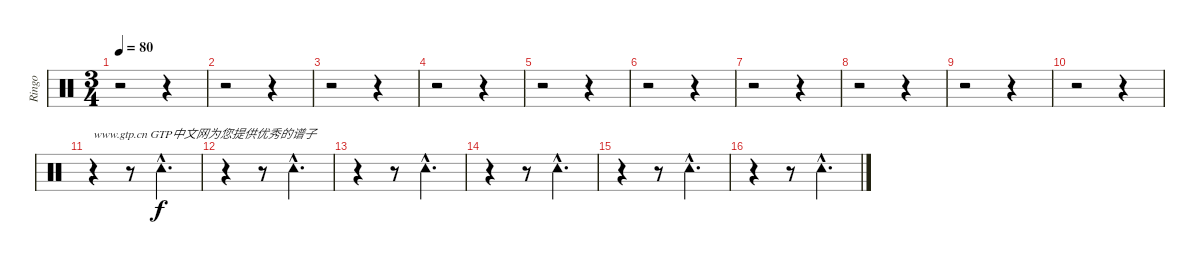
\track ("Ringo" "Ringo") {instrument percussion}
\staff {score}
\articulation defaults
\ts (3 4)
\tempo 80
\clef neutral
\ks c
r.2{dy f} r.4 |
r.2 r.4 |
r.2 r.4 |
r.2 r.4 |
r.2 r.4 |
r.2 r.4 |
r.2 r.4 |
r.2 r.4 |
r.2 r.4 |
r.2 r.4 |
r.4{txt "www.gtp.cn GTP中文网为您提供优秀的谱子"} r.8 "Tambourine (hit)"{hac}.4{d} |
r.4 r.8 "Tambourine (hit)"{hac}.4{d} |
r.4 r.8 "Tambourine (hit)"{hac}.4{d} |
r.4 r.8 "Tambourine (hit)"{hac}.4{d} |
r.4 r.8 "Tambourine (hit)"{hac}.4{d} |
r.4 r.8 "Tambourine (hit)"{hac}.4{d}
